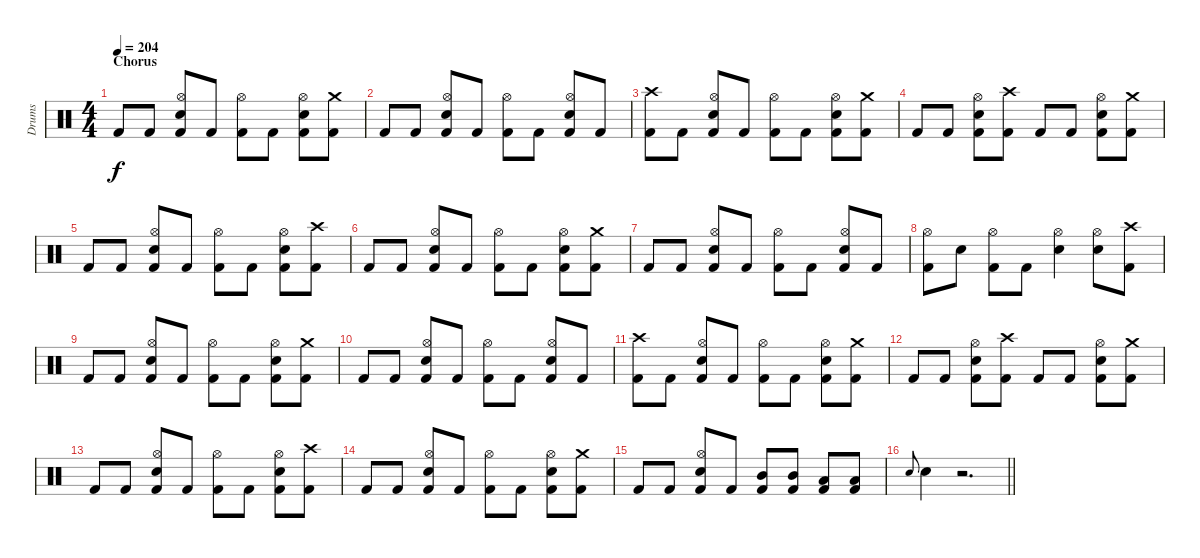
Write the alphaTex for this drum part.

\track ("Drums" "Drums") {instrument percussion}
\staff {score}
\articulation defaults
\ts (4 4)
\section ("" "Chorus")
\tempo 204
\clef neutral
\ks c "Kick (hit) 2".8{dy f} "Kick (hit) 2".8
("Hi-Hat (open)" "Snare (hit) 2" "Kick (hit) 2").8 "Kick (hit) 2".8 ("Hi-Hat (open)" "Kick (hit) 2").8 "Kick (hit) 2".8 ("Hi-Hat (open)" "Snare (hit) 2" "Kick (hit) 2").8 ("Crash medium (hit)" "Kick (hit) 2").8 |
"Kick (hit) 2".8 "Kick (hit) 2".8 ("Hi-Hat (open)" "Snare (hit) 2" "Kick (hit) 2").8 "Kick (hit) 2".8 ("Hi-Hat (open)" "Kick (hit) 2").8 "Kick (hit) 2".8 ("Hi-Hat (open)" "Snare (hit) 2" "Kick (hit) 2").8 "Kick (hit) 2".8 |
("Crash high (hit)" "Kick (hit) 2").8 "Kick (hit) 2".8 ("Hi-Hat (open)" "Snare (hit) 2" "Kick (hit) 2").8 "Kick (hit) 2".8 ("Hi-Hat (open)" "Kick (hit) 2").8 "Kick (hit) 2".8 ("Hi-Hat (open)" "Snare (hit) 2" "Kick (hit) 2").8 ("Crash medium (hit)" "Kick (hit) 2").8 |
"Kick (hit) 2".8 "Kick (hit) 2".8 ("Hi-Hat (open)" "Snare (hit) 2" "Kick (hit) 2").8 ("Crash high (hit)" "Kick (hit) 2").8 "Kick (hit) 2".8 "Kick (hit) 2".8 ("Hi-Hat (open)" "Snare (hit) 2" "Kick (hit) 2").8 ("Crash medium (hit)" "Kick (hit) 2").8 |
"Kick (hit) 2".8 "Kick (hit) 2".8 ("Hi-Hat (open)" "Snare (hit) 2" "Kick (hit) 2").8 "Kick (hit) 2".8 ("Hi-Hat (open)" "Kick (hit) 2").8 "Kick (hit) 2".8 ("Hi-Hat (open)" "Snare (hit) 2" "Kick (hit) 2").8 ("Crash high (hit)" "Kick (hit) 2").8 |
"Kick (hit) 2".8 "Kick (hit) 2".8 ("Hi-Hat (open)" "Snare (hit) 2" "Kick (hit) 2").8 "Kick (hit) 2".8 ("Hi-Hat (open)" "Kick (hit) 2").8 "Kick (hit) 2".8 ("Hi-Hat (open)" "Snare (hit) 2" "Kick (hit) 2").8 ("Crash medium (hit)" "Kick (hit) 2").8 |
"Kick (hit) 2".8 "Kick (hit) 2".8 ("Hi-Hat (open)" "Snare (hit) 2" "Kick (hit) 2").8 "Kick (hit) 2".8 ("Hi-Hat (open)" "Kick (hit) 2").8 "Kick (hit) 2".8 ("Hi-Hat (open)" "Snare (hit) 2" "Kick (hit) 2").8 "Kick (hit) 2".8 |
("Hi-Hat (open)" "Kick (hit) 2").8 "Snare (hit) 2".8 ("Hi-Hat (open)" "Kick (hit) 2").8 "Kick (hit) 2".8 ("Hi-Hat (open)" "Snare (hit) 2").4 ("Hi-Hat (open)" "Snare (hit) 2").8 ("Crash high (hit)" "Kick (hit) 2").8 |
"Kick (hit) 2".8 "Kick (hit) 2".8 ("Hi-Hat (open)" "Snare (hit) 2" "Kick (hit) 2").8 "Kick (hit) 2".8 ("Hi-Hat (open)" "Kick (hit) 2").8 "Kick (hit) 2".8 ("Hi-Hat (open)" "Snare (hit) 2" "Kick (hit) 2").8 ("Crash medium (hit)" "Kick (hit) 2").8 |
"Kick (hit) 2".8 "Kick (hit) 2".8 ("Hi-Hat (open)" "Snare (hit) 2" "Kick (hit) 2").8 "Kick (hit) 2".8 ("Hi-Hat (open)" "Kick (hit) 2").8 "Kick (hit) 2".8 ("Hi-Hat (open)" "Snare (hit) 2" "Kick (hit) 2").8 "Kick (hit) 2".8 |
("Crash high (hit)" "Kick (hit) 2").8 "Kick (hit) 2".8 ("Hi-Hat (open)" "Snare (hit) 2" "Kick (hit) 2").8 "Kick (hit) 2".8 ("Hi-Hat (open)" "Kick (hit) 2").8 "Kick (hit) 2".8 ("Hi-Hat (open)" "Snare (hit) 2" "Kick (hit) 2").8 ("Crash medium (hit)" "Kick (hit) 2").8 |
"Kick (hit) 2".8 "Kick (hit) 2".8 ("Hi-Hat (open)" "Snare (hit) 2" "Kick (hit) 2").8 ("Crash high (hit)" "Kick (hit) 2").8 "Kick (hit) 2".8 "Kick (hit) 2".8 ("Hi-Hat (open)" "Snare (hit) 2" "Kick (hit) 2").8 ("Crash medium (hit)" "Kick (hit) 2").8 |
"Kick (hit) 2".8 "Kick (hit) 2".8 ("Hi-Hat (open)" "Snare (hit) 2" "Kick (hit) 2").8 "Kick (hit) 2".8 ("Hi-Hat (open)" "Kick (hit) 2").8 "Kick (hit) 2".8 ("Hi-Hat (open)" "Snare (hit) 2" "Kick (hit) 2").8 ("Crash high (hit)" "Kick (hit) 2").8 |
"Kick (hit) 2".8 "Kick (hit) 2".8 ("Hi-Hat (open)" "Snare (hit) 2" "Kick (hit) 2").8 "Kick (hit) 2".8 ("Hi-Hat (open)" "Kick (hit) 2").8 "Kick (hit) 2".8 ("Hi-Hat (open)" "Snare (hit) 2" "Kick (hit) 2").8 ("Crash medium (hit)" "Kick (hit) 2").8 |
"Kick (hit) 2".8 "Kick (hit) 2".8 ("Hi-Hat (open)" "Snare (hit) 2" "Kick (hit) 2").8 "Kick (hit) 2".8 ("Mid Tom (hit)" "Kick (hit) 2").8 ("Mid Tom (hit)" "Kick (hit) 2").8 ("Low Tom (hit)" "Kick (hit) 2").8 ("Low Tom (hit)" "Kick (hit) 2").8 |
\barLineRight lightlight "Snare (hit) 2".8{gr onbeat} "Snare (hit) 2".4
r.2{d}
